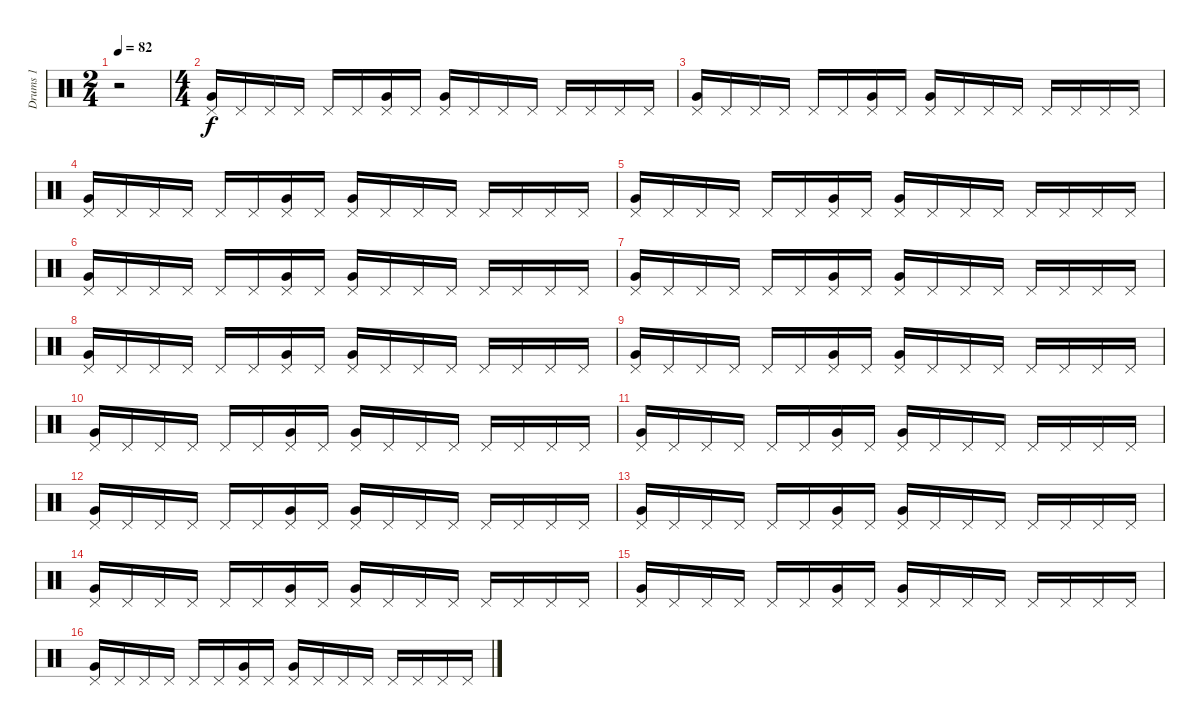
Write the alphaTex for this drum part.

\track ("Drums 1" "Drums 1") {instrument percussion}
\staff {score}
\articulation defaults
\ts (2 4)
\tempo 82
\clef neutral
\ks c
r.2{dy f} |
\ts (4 4)
("Pedal Hi-Hat (hit)" "Very Low Tom (hit)").16 "Pedal Hi-Hat (hit)".16 "Pedal Hi-Hat (hit)".16 "Pedal Hi-Hat (hit)".16 "Pedal Hi-Hat (hit)".16 "Pedal Hi-Hat (hit)".16 ("Pedal Hi-Hat (hit)" "Very Low Tom (hit)").16 "Pedal Hi-Hat (hit)".16 ("Pedal Hi-Hat (hit)" "Very Low Tom (hit)").16 "Pedal Hi-Hat (hit)".16 "Pedal Hi-Hat (hit)".16 "Pedal Hi-Hat (hit)".16 "Pedal Hi-Hat (hit)".16 "Pedal Hi-Hat (hit)".16 "Pedal Hi-Hat (hit)".16 "Pedal Hi-Hat (hit)".16 |
("Pedal Hi-Hat (hit)" "Very Low Tom (hit)").16 "Pedal Hi-Hat (hit)".16 "Pedal Hi-Hat (hit)".16 "Pedal Hi-Hat (hit)".16 "Pedal Hi-Hat (hit)".16 "Pedal Hi-Hat (hit)".16 ("Pedal Hi-Hat (hit)" "Very Low Tom (hit)").16 "Pedal Hi-Hat (hit)".16 ("Pedal Hi-Hat (hit)" "Very Low Tom (hit)").16 "Pedal Hi-Hat (hit)".16 "Pedal Hi-Hat (hit)".16 "Pedal Hi-Hat (hit)".16 "Pedal Hi-Hat (hit)".16 "Pedal Hi-Hat (hit)".16 "Pedal Hi-Hat (hit)".16 "Pedal Hi-Hat (hit)".16 |
("Pedal Hi-Hat (hit)" "Very Low Tom (hit)").16 "Pedal Hi-Hat (hit)".16 "Pedal Hi-Hat (hit)".16 "Pedal Hi-Hat (hit)".16 "Pedal Hi-Hat (hit)".16 "Pedal Hi-Hat (hit)".16 ("Pedal Hi-Hat (hit)" "Very Low Tom (hit)").16 "Pedal Hi-Hat (hit)".16 ("Pedal Hi-Hat (hit)" "Very Low Tom (hit)").16 "Pedal Hi-Hat (hit)".16 "Pedal Hi-Hat (hit)".16 "Pedal Hi-Hat (hit)".16 "Pedal Hi-Hat (hit)".16 "Pedal Hi-Hat (hit)".16 "Pedal Hi-Hat (hit)".16 "Pedal Hi-Hat (hit)".16 |
("Pedal Hi-Hat (hit)" "Very Low Tom (hit)").16 "Pedal Hi-Hat (hit)".16 "Pedal Hi-Hat (hit)".16 "Pedal Hi-Hat (hit)".16 "Pedal Hi-Hat (hit)".16 "Pedal Hi-Hat (hit)".16 ("Pedal Hi-Hat (hit)" "Very Low Tom (hit)").16 "Pedal Hi-Hat (hit)".16 ("Pedal Hi-Hat (hit)" "Very Low Tom (hit)").16 "Pedal Hi-Hat (hit)".16 "Pedal Hi-Hat (hit)".16 "Pedal Hi-Hat (hit)".16 "Pedal Hi-Hat (hit)".16 "Pedal Hi-Hat (hit)".16 "Pedal Hi-Hat (hit)".16 "Pedal Hi-Hat (hit)".16 |
("Pedal Hi-Hat (hit)" "Very Low Tom (hit)").16 "Pedal Hi-Hat (hit)".16 "Pedal Hi-Hat (hit)".16 "Pedal Hi-Hat (hit)".16 "Pedal Hi-Hat (hit)".16 "Pedal Hi-Hat (hit)".16 ("Pedal Hi-Hat (hit)" "Very Low Tom (hit)").16 "Pedal Hi-Hat (hit)".16 ("Pedal Hi-Hat (hit)" "Very Low Tom (hit)").16 "Pedal Hi-Hat (hit)".16 "Pedal Hi-Hat (hit)".16 "Pedal Hi-Hat (hit)".16 "Pedal Hi-Hat (hit)".16 "Pedal Hi-Hat (hit)".16 "Pedal Hi-Hat (hit)".16 "Pedal Hi-Hat (hit)".16 |
("Pedal Hi-Hat (hit)" "Very Low Tom (hit)").16 "Pedal Hi-Hat (hit)".16 "Pedal Hi-Hat (hit)".16 "Pedal Hi-Hat (hit)".16 "Pedal Hi-Hat (hit)".16 "Pedal Hi-Hat (hit)".16 ("Pedal Hi-Hat (hit)" "Very Low Tom (hit)").16 "Pedal Hi-Hat (hit)".16 ("Pedal Hi-Hat (hit)" "Very Low Tom (hit)").16 "Pedal Hi-Hat (hit)".16 "Pedal Hi-Hat (hit)".16 "Pedal Hi-Hat (hit)".16 "Pedal Hi-Hat (hit)".16 "Pedal Hi-Hat (hit)".16 "Pedal Hi-Hat (hit)".16 "Pedal Hi-Hat (hit)".16 |
("Pedal Hi-Hat (hit)" "Very Low Tom (hit)").16 "Pedal Hi-Hat (hit)".16 "Pedal Hi-Hat (hit)".16 "Pedal Hi-Hat (hit)".16 "Pedal Hi-Hat (hit)".16 "Pedal Hi-Hat (hit)".16 ("Pedal Hi-Hat (hit)" "Very Low Tom (hit)").16 "Pedal Hi-Hat (hit)".16 ("Pedal Hi-Hat (hit)" "Very Low Tom (hit)").16 "Pedal Hi-Hat (hit)".16 "Pedal Hi-Hat (hit)".16 "Pedal Hi-Hat (hit)".16 "Pedal Hi-Hat (hit)".16 "Pedal Hi-Hat (hit)".16 "Pedal Hi-Hat (hit)".16 "Pedal Hi-Hat (hit)".16 |
("Pedal Hi-Hat (hit)" "Very Low Tom (hit)").16 "Pedal Hi-Hat (hit)".16 "Pedal Hi-Hat (hit)".16 "Pedal Hi-Hat (hit)".16 "Pedal Hi-Hat (hit)".16 "Pedal Hi-Hat (hit)".16 ("Pedal Hi-Hat (hit)" "Very Low Tom (hit)").16 "Pedal Hi-Hat (hit)".16 ("Pedal Hi-Hat (hit)" "Very Low Tom (hit)").16 "Pedal Hi-Hat (hit)".16 "Pedal Hi-Hat (hit)".16 "Pedal Hi-Hat (hit)".16 "Pedal Hi-Hat (hit)".16 "Pedal Hi-Hat (hit)".16 "Pedal Hi-Hat (hit)".16 "Pedal Hi-Hat (hit)".16 |
("Pedal Hi-Hat (hit)" "Very Low Tom (hit)").16 "Pedal Hi-Hat (hit)".16 "Pedal Hi-Hat (hit)".16 "Pedal Hi-Hat (hit)".16 "Pedal Hi-Hat (hit)".16 "Pedal Hi-Hat (hit)".16 ("Pedal Hi-Hat (hit)" "Very Low Tom (hit)").16 "Pedal Hi-Hat (hit)".16 ("Pedal Hi-Hat (hit)" "Very Low Tom (hit)").16 "Pedal Hi-Hat (hit)".16 "Pedal Hi-Hat (hit)".16 "Pedal Hi-Hat (hit)".16 "Pedal Hi-Hat (hit)".16 "Pedal Hi-Hat (hit)".16 "Pedal Hi-Hat (hit)".16 "Pedal Hi-Hat (hit)".16 |
("Pedal Hi-Hat (hit)" "Very Low Tom (hit)").16 "Pedal Hi-Hat (hit)".16 "Pedal Hi-Hat (hit)".16 "Pedal Hi-Hat (hit)".16 "Pedal Hi-Hat (hit)".16 "Pedal Hi-Hat (hit)".16 ("Pedal Hi-Hat (hit)" "Very Low Tom (hit)").16 "Pedal Hi-Hat (hit)".16 ("Pedal Hi-Hat (hit)" "Very Low Tom (hit)").16 "Pedal Hi-Hat (hit)".16 "Pedal Hi-Hat (hit)".16 "Pedal Hi-Hat (hit)".16 "Pedal Hi-Hat (hit)".16 "Pedal Hi-Hat (hit)".16 "Pedal Hi-Hat (hit)".16 "Pedal Hi-Hat (hit)".16 |
("Pedal Hi-Hat (hit)" "Very Low Tom (hit)").16 "Pedal Hi-Hat (hit)".16 "Pedal Hi-Hat (hit)".16 "Pedal Hi-Hat (hit)".16 "Pedal Hi-Hat (hit)".16 "Pedal Hi-Hat (hit)".16 ("Pedal Hi-Hat (hit)" "Very Low Tom (hit)").16 "Pedal Hi-Hat (hit)".16 ("Pedal Hi-Hat (hit)" "Very Low Tom (hit)").16 "Pedal Hi-Hat (hit)".16 "Pedal Hi-Hat (hit)".16 "Pedal Hi-Hat (hit)".16 "Pedal Hi-Hat (hit)".16 "Pedal Hi-Hat (hit)".16 "Pedal Hi-Hat (hit)".16 "Pedal Hi-Hat (hit)".16 |
("Pedal Hi-Hat (hit)" "Very Low Tom (hit)").16 "Pedal Hi-Hat (hit)".16 "Pedal Hi-Hat (hit)".16 "Pedal Hi-Hat (hit)".16 "Pedal Hi-Hat (hit)".16 "Pedal Hi-Hat (hit)".16 ("Pedal Hi-Hat (hit)" "Very Low Tom (hit)").16 "Pedal Hi-Hat (hit)".16 ("Pedal Hi-Hat (hit)" "Very Low Tom (hit)").16 "Pedal Hi-Hat (hit)".16 "Pedal Hi-Hat (hit)".16 "Pedal Hi-Hat (hit)".16 "Pedal Hi-Hat (hit)".16 "Pedal Hi-Hat (hit)".16 "Pedal Hi-Hat (hit)".16 "Pedal Hi-Hat (hit)".16 |
("Pedal Hi-Hat (hit)" "Very Low Tom (hit)").16 "Pedal Hi-Hat (hit)".16 "Pedal Hi-Hat (hit)".16 "Pedal Hi-Hat (hit)".16 "Pedal Hi-Hat (hit)".16 "Pedal Hi-Hat (hit)".16 ("Pedal Hi-Hat (hit)" "Very Low Tom (hit)").16 "Pedal Hi-Hat (hit)".16 ("Pedal Hi-Hat (hit)" "Very Low Tom (hit)").16 "Pedal Hi-Hat (hit)".16 "Pedal Hi-Hat (hit)".16 "Pedal Hi-Hat (hit)".16 "Pedal Hi-Hat (hit)".16 "Pedal Hi-Hat (hit)".16 "Pedal Hi-Hat (hit)".16 "Pedal Hi-Hat (hit)".16 |
("Pedal Hi-Hat (hit)" "Very Low Tom (hit)").16 "Pedal Hi-Hat (hit)".16 "Pedal Hi-Hat (hit)".16 "Pedal Hi-Hat (hit)".16 "Pedal Hi-Hat (hit)".16 "Pedal Hi-Hat (hit)".16 ("Pedal Hi-Hat (hit)" "Very Low Tom (hit)").16 "Pedal Hi-Hat (hit)".16 ("Pedal Hi-Hat (hit)" "Very Low Tom (hit)").16 "Pedal Hi-Hat (hit)".16 "Pedal Hi-Hat (hit)".16 "Pedal Hi-Hat (hit)".16 "Pedal Hi-Hat (hit)".16 "Pedal Hi-Hat (hit)".16 "Pedal Hi-Hat (hit)".16 "Pedal Hi-Hat (hit)".16 |
("Pedal Hi-Hat (hit)" "Very Low Tom (hit)").16 "Pedal Hi-Hat (hit)".16 "Pedal Hi-Hat (hit)".16 "Pedal Hi-Hat (hit)".16 "Pedal Hi-Hat (hit)".16 "Pedal Hi-Hat (hit)".16 ("Pedal Hi-Hat (hit)" "Very Low Tom (hit)").16 "Pedal Hi-Hat (hit)".16 ("Pedal Hi-Hat (hit)" "Very Low Tom (hit)").16 "Pedal Hi-Hat (hit)".16 "Pedal Hi-Hat (hit)".16 "Pedal Hi-Hat (hit)".16 "Pedal Hi-Hat (hit)".16 "Pedal Hi-Hat (hit)".16 "Pedal Hi-Hat (hit)".16 "Pedal Hi-Hat (hit)".16
